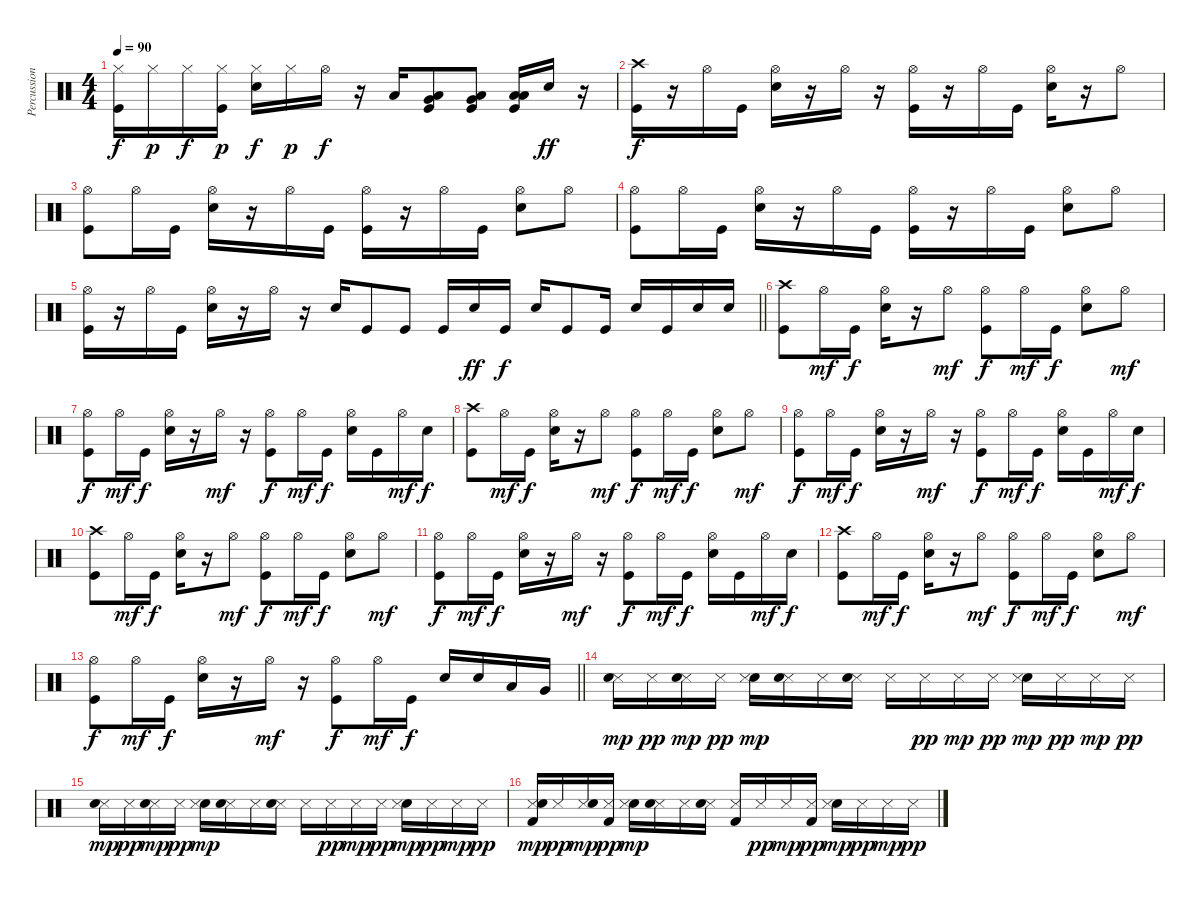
\track ("Percussion" "Percussion") {instrument percussion}
\staff {score}
\articulation defaults
\ts (4 4)
\tempo 90
\clef neutral
\ks c
("Hi-Hat (closed)" "Kick (hit)").16{dy f} "Hi-Hat (closed)".16{dy p} "Hi-Hat (closed)".16{dy f} ("Hi-Hat (closed)" "Kick (hit)").16{dy p} ("Hi-Hat (closed)" "Electric Snare (hit)").16{dy f} "Hi-Hat (closed)".16{dy p} "Hi-Hat (open)".16{dy f} r.16 "Low Tom (hit)".16 ("Low Floor Tom (hit)" "Very Low Tom (hit)" "Kick (hit)").8 ("Low Floor Tom (hit)" "Very Low Tom (hit)" "Kick (hit)").8 ("Low Floor Tom (hit)" "Low Floor Tom (hit)" "Kick (hit)").16 "Snare (hit) 2".16{dy ff} r.16 |
("Crash high (hit)" "Kick (hit)").16{dy f} r.16 "Hi-Hat (open)".16 "Kick (hit)".16 ("Hi-Hat (open)" "Snare (hit) 2").16 r.16 "Hi-Hat (open)".16 r.16 ("Hi-Hat (open)" "Kick (hit)").16 r.16 "Hi-Hat (open)".16 "Kick (hit)".16 ("Hi-Hat (open)" "Snare (hit) 2").16 r.16 "Hi-Hat (open)".8 |
("Hi-Hat (open)" "Kick (hit)").8 "Hi-Hat (open)".16 "Kick (hit)".16 ("Hi-Hat (open)" "Snare (hit) 2").16 r.16 "Hi-Hat (open)".16 "Kick (hit)".16 ("Hi-Hat (open)" "Kick (hit)").16 r.16 "Hi-Hat (open)".16 "Kick (hit)".16 ("Hi-Hat (open)" "Snare (hit) 2").8 "Hi-Hat (open)".8 |
("Hi-Hat (open)" "Kick (hit)").8 "Hi-Hat (open)".16 "Kick (hit)".16 ("Hi-Hat (open)" "Snare (hit) 2").16 r.16 "Hi-Hat (open)".16 "Kick (hit)".16 ("Hi-Hat (open)" "Kick (hit)").16 r.16 "Hi-Hat (open)".16 "Kick (hit)".16 ("Hi-Hat (open)" "Snare (hit) 2").8 "Hi-Hat (open)".8 |
\barLineRight lightlight
("Hi-Hat (open)" "Kick (hit)").16 r.16 "Hi-Hat (open)".16 "Kick (hit)".16 ("Hi-Hat (open)" "Snare (hit) 2").16 r.16 "Hi-Hat (open)".16 r.16 "Snare (hit) 2".16 "Kick (hit)".8 "Kick (hit)".8 "Kick (hit)".16 "Snare (hit) 2".16{dy ff} "Kick (hit)".16{dy f} "Snare (hit) 2".16 "Kick (hit)".8 "Kick (hit)".16 "Snare (hit) 2".16 "Kick (hit)".16 "Snare (hit) 2".16 "Snare (hit) 2".16 |
("Crash high (hit)" "Kick (hit)").8 "Hi-Hat (open)".16{dy mf} "Kick (hit)".16{dy f} ("Hi-Hat (open)" "Snare (hit) 2").16 r.16 "Hi-Hat (open)".8{dy mf} ("Hi-Hat (open)" "Kick (hit)").8{dy f} "Hi-Hat (open)".16{dy mf} "Kick (hit)".16{dy f} ("Hi-Hat (open)" "Snare (hit) 2").8 "Hi-Hat (open)".8{dy mf} |
("Hi-Hat (open)" "Kick (hit)").8{dy f} "Hi-Hat (open)".16{dy mf} "Kick (hit)".16{dy f} ("Hi-Hat (open)" "Snare (hit) 2").16 r.16 "Hi-Hat (open)".16{dy mf} r.16 ("Hi-Hat (open)" "Kick (hit)").8{dy f} "Hi-Hat (open)".16{dy mf} "Kick (hit)".16{dy f} ("Hi-Hat (open)" "Snare (hit) 2").16 "Kick (hit)".16 "Hi-Hat (open)".16{dy mf} "Snare (hit) 2".16{dy f} |
("Crash high (hit)" "Kick (hit)").8 "Hi-Hat (open)".16{dy mf} "Kick (hit)".16{dy f} ("Hi-Hat (open)" "Snare (hit) 2").16 r.16 "Hi-Hat (open)".8{dy mf} ("Hi-Hat (open)" "Kick (hit)").8{dy f} "Hi-Hat (open)".16{dy mf} "Kick (hit)".16{dy f} ("Hi-Hat (open)" "Snare (hit) 2").8 "Hi-Hat (open)".8{dy mf} |
("Hi-Hat (open)" "Kick (hit)").8{dy f} "Hi-Hat (open)".16{dy mf} "Kick (hit)".16{dy f} ("Hi-Hat (open)" "Snare (hit) 2").16 r.16 "Hi-Hat (open)".16{dy mf} r.16 ("Hi-Hat (open)" "Kick (hit)").8{dy f} "Hi-Hat (open)".16{dy mf} "Kick (hit)".16{dy f} ("Hi-Hat (open)" "Snare (hit) 2").16 "Kick (hit)".16 "Hi-Hat (open)".16{dy mf} "Snare (hit) 2".16{dy f} |
("Crash high (hit)" "Kick (hit)").8 "Hi-Hat (open)".16{dy mf} "Kick (hit)".16{dy f} ("Hi-Hat (open)" "Snare (hit) 2").16 r.16 "Hi-Hat (open)".8{dy mf} ("Hi-Hat (open)" "Kick (hit)").8{dy f} "Hi-Hat (open)".16{dy mf} "Kick (hit)".16{dy f} ("Hi-Hat (open)" "Snare (hit) 2").8 "Hi-Hat (open)".8{dy mf} |
("Hi-Hat (open)" "Kick (hit)").8{dy f} "Hi-Hat (open)".16{dy mf} "Kick (hit)".16{dy f} ("Hi-Hat (open)" "Snare (hit) 2").16 r.16 "Hi-Hat (open)".16{dy mf} r.16 ("Hi-Hat (open)" "Kick (hit)").8{dy f} "Hi-Hat (open)".16{dy mf} "Kick (hit)".16{dy f} ("Hi-Hat (open)" "Snare (hit) 2").16 "Kick (hit)".16 "Hi-Hat (open)".16{dy mf} "Snare (hit) 2".16{dy f} |
("Crash high (hit)" "Kick (hit)").8 "Hi-Hat (open)".16{dy mf} "Kick (hit)".16{dy f} ("Hi-Hat (open)" "Snare (hit) 2").16 r.16 "Hi-Hat (open)".8{dy mf} ("Hi-Hat (open)" "Kick (hit)").8{dy f} "Hi-Hat (open)".16{dy mf} "Kick (hit)".16{dy f} ("Hi-Hat (open)" "Snare (hit) 2").8 "Hi-Hat (open)".8{dy mf} |
\barLineRight lightlight
("Hi-Hat (open)" "Kick (hit)").8{dy f} "Hi-Hat (open)".16{dy mf} "Kick (hit)".16{dy f} ("Hi-Hat (open)" "Snare (hit) 2").16 r.16 "Hi-Hat (open)".16{dy mf} r.16 ("Hi-Hat (open)" "Kick (hit)").8{dy f} "Hi-Hat (open)".16{dy mf} "Kick (hit)".16{dy f} "Snare (hit) 2".16 "Snare (hit) 2".16 "Low Tom (hit)".16 "Very Low Tom (hit)".16 |
("Snare (side stick) 3" "Hand Clap (hit)").16{dy mp} "Snare (side stick) 3".16{dy pp} ("Snare (side stick) 3" "Hand Clap (hit)").16{dy mp} "Snare (side stick) 3".16{dy pp} ("Electric Snare (hit)" "Snare (side stick) 3").16{dy mp} ("Snare (side stick) 3" "Hand Clap (hit)").16 "Snare (side stick) 3".16 ("Snare (side stick) 3" "Hand Clap (hit)").16 "Snare (side stick) 3".16 "Snare (side stick) 3".16{dy pp} "Snare (side stick) 3".16{dy mp} "Snare (side stick) 3".16{dy pp} ("Electric Snare (hit)" "Snare (side stick) 3").16{dy mp} "Snare (side stick) 3".16{dy pp} "Snare (side stick) 3".16{dy mp} "Snare (side stick) 3".16{dy pp} |
("Snare (side stick) 3" "Hand Clap (hit)").16{dy mp} "Snare (side stick) 3".16{dy pp} ("Snare (side stick) 3" "Hand Clap (hit)").16{dy mp} "Snare (side stick) 3".16{dy pp} ("Electric Snare (hit)" "Snare (side stick) 3").16{dy mp} ("Snare (side stick) 3" "Hand Clap (hit)").16 "Snare (side stick) 3".16 ("Snare (side stick) 3" "Hand Clap (hit)").16 "Snare (side stick) 3".16 "Snare (side stick) 3".16{dy pp} "Snare (side stick) 3".16{dy mp} "Snare (side stick) 3".16{dy pp} ("Electric Snare (hit)" "Snare (side stick) 3").16{dy mp} "Snare (side stick) 3".16{dy pp} "Snare (side stick) 3".16{dy mp} "Snare (side stick) 3".16{dy pp} |
("Kick (hit) 2" "Snare (side stick) 3" "Hand Clap (hit)").16{dy mp} "Snare (side stick) 3".16{dy pp} ("Snare (side stick) 3" "Hand Clap (hit)").16{dy mp} ("Kick (hit) 2" "Snare (side stick) 3").16{dy pp} ("Electric Snare (hit)" "Snare (side stick) 3").16{dy mp} ("Snare (side stick) 3" "Hand Clap (hit)").16 "Snare (side stick) 3".16 ("Snare (side stick) 3" "Hand Clap (hit)").16 ("Kick (hit) 2" "Snare (side stick) 3").16 "Snare (side stick) 3".16{dy pp} "Snare (side stick) 3".16{dy mp} ("Kick (hit) 2" "Snare (side stick) 3").16{dy pp} ("Electric Snare (hit)" "Snare (side stick) 3").16{dy mp} "Snare (side stick) 3".16{dy pp} "Snare (side stick) 3".16{dy mp} "Snare (side stick) 3".16{dy pp}
